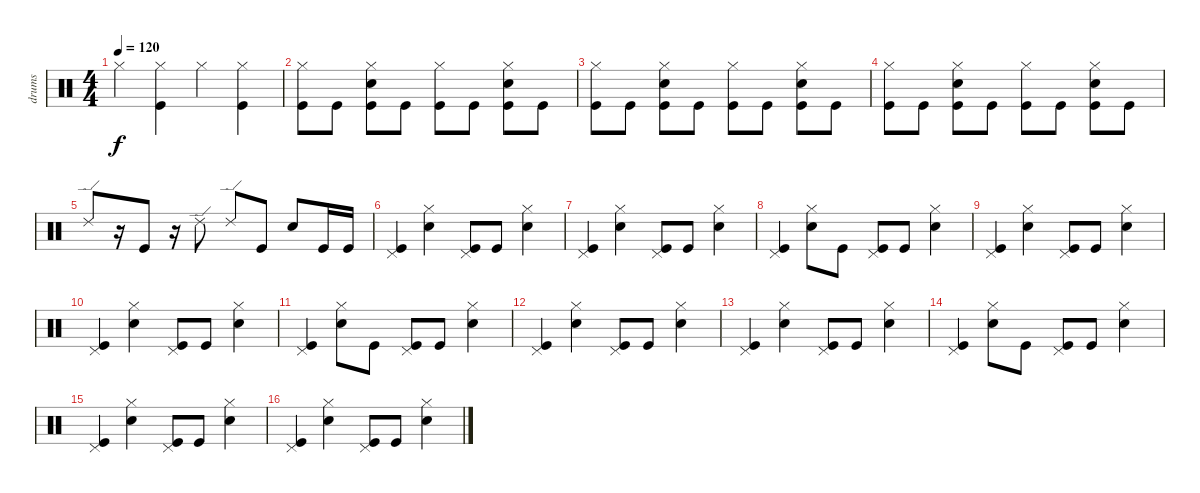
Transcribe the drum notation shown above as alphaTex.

\track ("drums" "drums") {instrument percussion}
\staff {score}
\articulation defaults
\ts (4 4)
\tempo 120
\clef neutral
\ks c "Hi-Hat (closed)".4{dy f}
("Hi-Hat (closed)" "Kick (hit)").4 "Hi-Hat (closed)".4 ("Hi-Hat (closed)" "Kick (hit)").4 |
("Hi-Hat (closed)" "Kick (hit)").8 "Kick (hit)".8 ("Hi-Hat (closed)" "Snare (hit) 2" "Kick (hit)").8 "Kick (hit)".8 ("Hi-Hat (closed)" "Kick (hit)").8 "Kick (hit)".8 ("Hi-Hat (closed)" "Snare (hit) 2" "Kick (hit)").8 "Kick (hit)".8 |
("Hi-Hat (closed)" "Kick (hit)").8 "Kick (hit)".8 ("Hi-Hat (closed)" "Snare (hit) 2" "Kick (hit)").8 "Kick (hit)".8 ("Hi-Hat (closed)" "Kick (hit)").8 "Kick (hit)".8 ("Hi-Hat (closed)" "Snare (hit) 2" "Kick (hit)").8 "Kick (hit)".8 |
("Hi-Hat (closed)" "Kick (hit)").8 "Kick (hit)".8 ("Hi-Hat (closed)" "Snare (hit) 2" "Kick (hit)").8 "Kick (hit)".8 ("Hi-Hat (closed)" "Kick (hit)").8 "Kick (hit)".8 ("Hi-Hat (closed)" "Snare (hit) 2" "Kick (hit)").8 "Kick (hit)".8 |
"Ride (edge) 2".8 r.16 "Kick (hit)".8 r.16 "Ride (edge) 2".8 "Ride (edge) 2".8 "Kick (hit)".8 "Snare (hit) 2".8 "Kick (hit)".16 "Kick (hit)".16 |
("Pedal Hi-Hat (hit)" "Kick (hit)").4 ("Hi-Hat (closed)" "Snare (hit) 2").4 ("Pedal Hi-Hat (hit)" "Kick (hit)").8 "Kick (hit)".8 ("Hi-Hat (closed)" "Snare (hit) 2").4 |
("Pedal Hi-Hat (hit)" "Kick (hit)").4 ("Hi-Hat (closed)" "Snare (hit) 2").4 ("Pedal Hi-Hat (hit)" "Kick (hit)").8 "Kick (hit)".8 ("Hi-Hat (closed)" "Snare (hit) 2").4 |
("Pedal Hi-Hat (hit)" "Kick (hit)").4 ("Hi-Hat (closed)" "Snare (hit) 2").8 "Kick (hit)".8 ("Pedal Hi-Hat (hit)" "Kick (hit)").8 "Kick (hit)".8 ("Hi-Hat (closed)" "Snare (hit) 2").4 |
("Pedal Hi-Hat (hit)" "Kick (hit)").4 ("Hi-Hat (closed)" "Snare (hit) 2").4 ("Pedal Hi-Hat (hit)" "Kick (hit)").8 "Kick (hit)".8 ("Hi-Hat (closed)" "Snare (hit) 2").4 |
("Pedal Hi-Hat (hit)" "Kick (hit)").4 ("Hi-Hat (closed)" "Snare (hit) 2").4 ("Pedal Hi-Hat (hit)" "Kick (hit)").8 "Kick (hit)".8 ("Hi-Hat (closed)" "Snare (hit) 2").4 |
("Pedal Hi-Hat (hit)" "Kick (hit)").4 ("Hi-Hat (closed)" "Snare (hit) 2").8 "Kick (hit)".8 ("Pedal Hi-Hat (hit)" "Kick (hit)").8 "Kick (hit)".8 ("Hi-Hat (closed)" "Snare (hit) 2").4 |
("Pedal Hi-Hat (hit)" "Kick (hit)").4 ("Hi-Hat (closed)" "Snare (hit) 2").4 ("Pedal Hi-Hat (hit)" "Kick (hit)").8 "Kick (hit)".8 ("Hi-Hat (closed)" "Snare (hit) 2").4 |
("Pedal Hi-Hat (hit)" "Kick (hit)").4 ("Hi-Hat (closed)" "Snare (hit) 2").4 ("Pedal Hi-Hat (hit)" "Kick (hit)").8 "Kick (hit)".8 ("Hi-Hat (closed)" "Snare (hit) 2").4 |
("Pedal Hi-Hat (hit)" "Kick (hit)").4 ("Hi-Hat (closed)" "Snare (hit) 2").8 "Kick (hit)".8 ("Pedal Hi-Hat (hit)" "Kick (hit)").8 "Kick (hit)".8 ("Hi-Hat (closed)" "Snare (hit) 2").4 |
("Pedal Hi-Hat (hit)" "Kick (hit)").4 ("Hi-Hat (closed)" "Snare (hit) 2").4 ("Pedal Hi-Hat (hit)" "Kick (hit)").8 "Kick (hit)".8 ("Hi-Hat (closed)" "Snare (hit) 2").4 |
("Pedal Hi-Hat (hit)" "Kick (hit)").4 ("Hi-Hat (closed)" "Snare (hit) 2").4 ("Pedal Hi-Hat (hit)" "Kick (hit)").8 "Kick (hit)".8 ("Hi-Hat (closed)" "Snare (hit) 2").4
